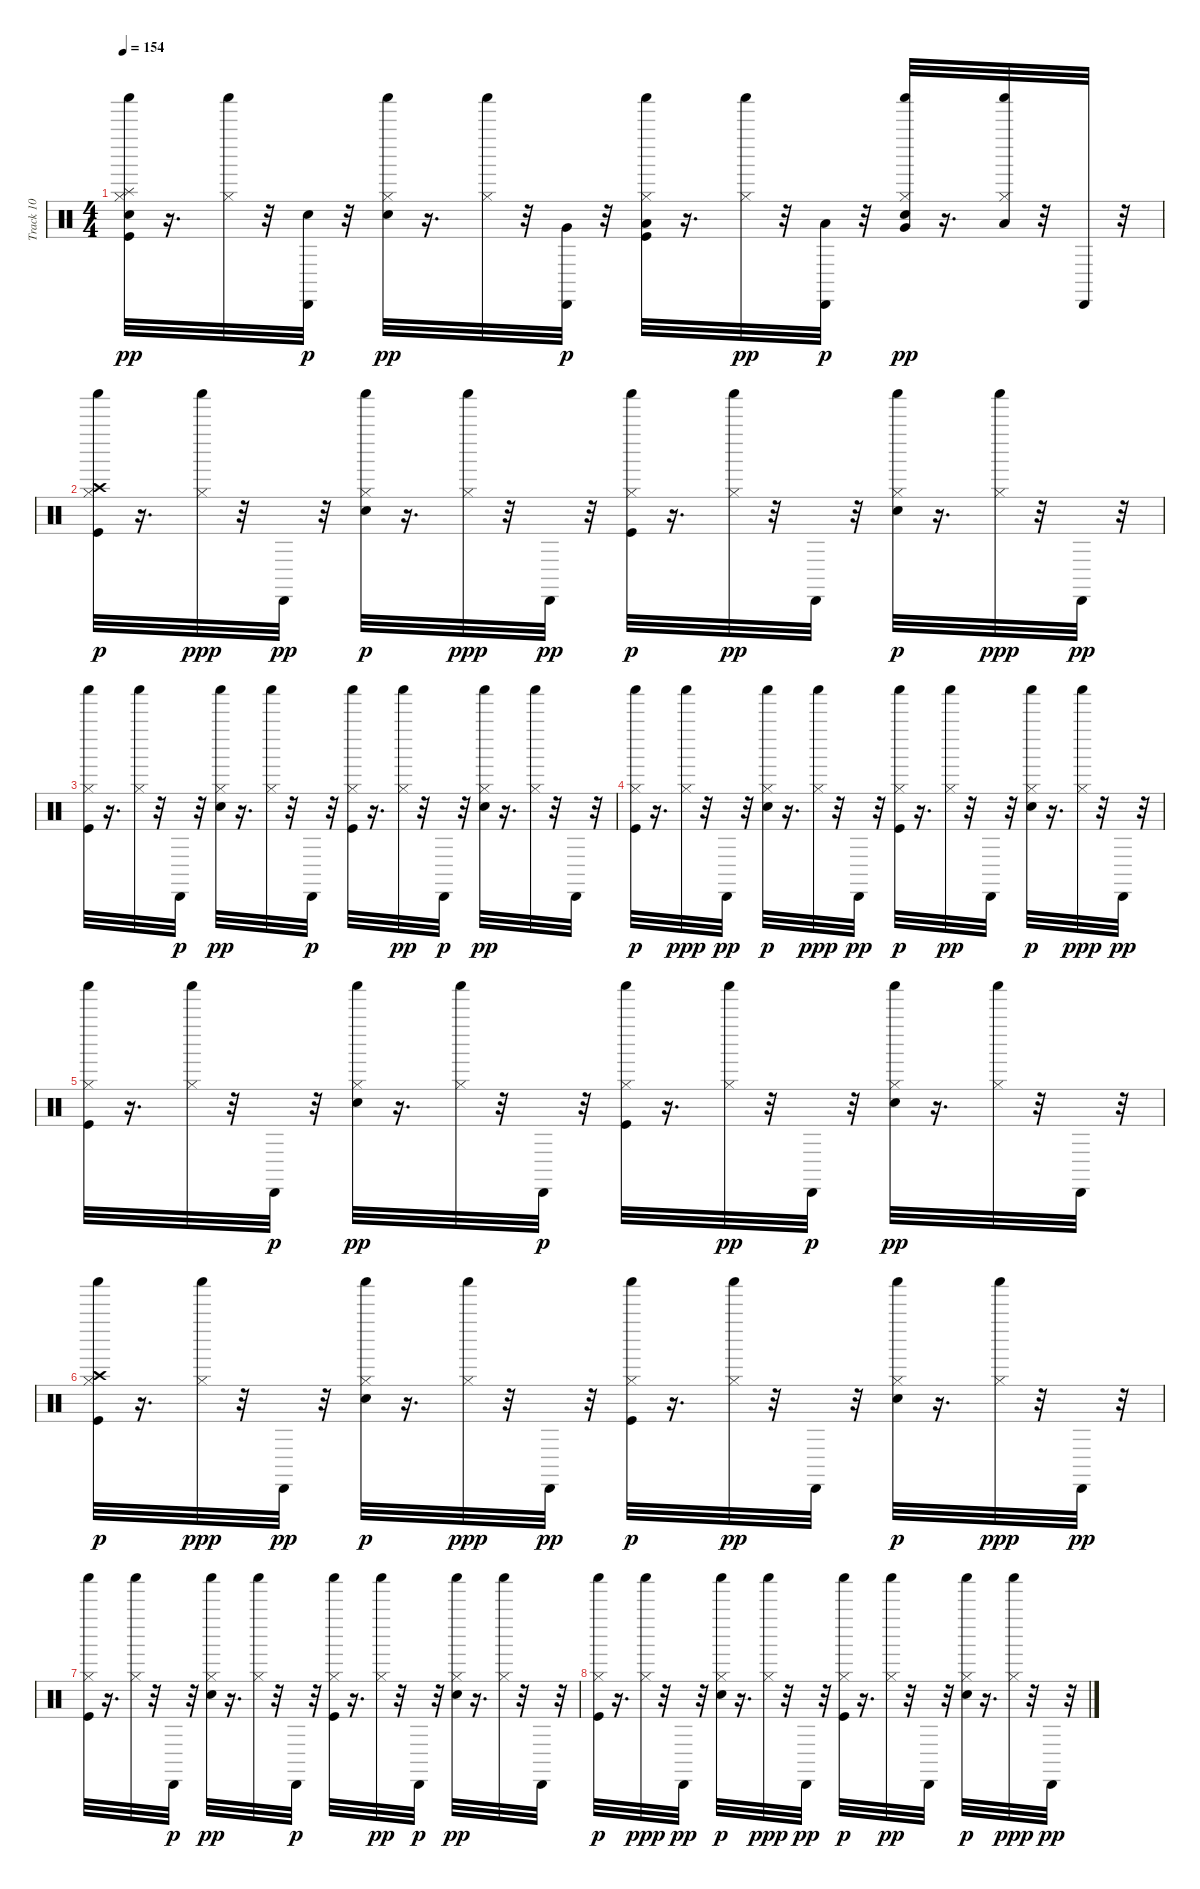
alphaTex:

\track ("Track 10" "Track 10") {instrument percussion}
\staff {score}
\articulation defaults
\ts (4 4)
\tempo 154
\clef neutral
\ks c
("Kick (hit)" "Electric Snare (hit)" "Hi-Hat (closed)" "Splash (hit)" "Shaker (hit)").32{dy pp} r.16{d} ("Hi-Hat (closed)" "Shaker (hit)").32 r.32 ("Electric Snare (hit)" "Cabasa (hit)").32{dy p} r.32 ("Electric Snare (hit)" "Hi-Hat (closed)" "Shaker (hit)").32{dy pp} r.16{d} ("Hi-Hat (closed)" "Shaker (hit)").32 r.32 ("Very Low Tom (hit)" "Cabasa (hit)").32{dy p} r.32 ("Kick (hit)" "Hi-Hat (closed)" "Low Tom (hit)" "Shaker (hit)").32 r.16{d} ("Hi-Hat (closed)" "Shaker (hit)").32{dy pp} r.32 ("Low Floor Tom (hit)" "Cabasa (hit)").32{dy p} r.32 ("Electric Snare (hit)" "Hi-Hat (closed)" "Very Low Tom (hit)" "Shaker (hit)").32{dy pp} r.16{d} ("Low Floor Tom (hit)" "Hi-Hat (closed)" "Shaker (hit)").32 r.32 "Cabasa (hit)".32 r.32 |
("Kick (hit)" "Hi-Hat (closed)" "Crash high (hit)" "Shaker (hit)").32{dy p} r.16{d} ("Hi-Hat (closed)" "Shaker (hit)").32{dy ppp} r.32 "Cabasa (hit)".32{dy pp} r.32 ("Electric Snare (hit)" "Hi-Hat (closed)" "Shaker (hit)").32{dy p} r.16{d} ("Hi-Hat (closed)" "Shaker (hit)").32{dy ppp} r.32 "Cabasa (hit)".32{dy pp} r.32 ("Kick (hit)" "Hi-Hat (closed)" "Shaker (hit)").32{dy p} r.16{d} ("Hi-Hat (closed)" "Shaker (hit)").32{dy pp} r.32 "Cabasa (hit)".32 r.32 ("Electric Snare (hit)" "Hi-Hat (closed)" "Shaker (hit)").32{dy p} r.16{d} ("Hi-Hat (closed)" "Shaker (hit)").32{dy ppp} r.32 "Cabasa (hit)".32{dy pp} r.32 |
("Kick (hit)" "Hi-Hat (closed)" "Shaker (hit)").32 r.16{d} ("Hi-Hat (closed)" "Shaker (hit)").32 r.32 "Cabasa (hit)".32{dy p} r.32 ("Electric Snare (hit)" "Hi-Hat (closed)" "Shaker (hit)").32{dy pp} r.16{d} ("Hi-Hat (closed)" "Shaker (hit)").32 r.32 "Cabasa (hit)".32{dy p} r.32 ("Kick (hit)" "Hi-Hat (closed)" "Shaker (hit)").32 r.16{d} ("Hi-Hat (closed)" "Shaker (hit)").32{dy pp} r.32 "Cabasa (hit)".32{dy p} r.32 ("Electric Snare (hit)" "Hi-Hat (closed)" "Shaker (hit)").32{dy pp} r.16{d} ("Hi-Hat (closed)" "Shaker (hit)").32 r.32 "Cabasa (hit)".32 r.32 |
("Kick (hit)" "Hi-Hat (closed)" "Shaker (hit)").32{dy p} r.16{d} ("Hi-Hat (closed)" "Shaker (hit)").32{dy ppp} r.32 "Cabasa (hit)".32{dy pp} r.32 ("Electric Snare (hit)" "Hi-Hat (closed)" "Shaker (hit)").32{dy p} r.16{d} ("Hi-Hat (closed)" "Shaker (hit)").32{dy ppp} r.32 "Cabasa (hit)".32{dy pp} r.32 ("Kick (hit)" "Hi-Hat (closed)" "Shaker (hit)").32{dy p} r.16{d} ("Hi-Hat (closed)" "Shaker (hit)").32{dy pp} r.32 "Cabasa (hit)".32 r.32 ("Electric Snare (hit)" "Hi-Hat (closed)" "Shaker (hit)").32{dy p} r.16{d} ("Hi-Hat (closed)" "Shaker (hit)").32{dy ppp} r.32 "Cabasa (hit)".32{dy pp} r.32 |
("Kick (hit)" "Hi-Hat (closed)" "Shaker (hit)").32 r.16{d} ("Hi-Hat (closed)" "Shaker (hit)").32 r.32 "Cabasa (hit)".32{dy p} r.32 ("Electric Snare (hit)" "Hi-Hat (closed)" "Shaker (hit)").32{dy pp} r.16{d} ("Hi-Hat (closed)" "Shaker (hit)").32 r.32 "Cabasa (hit)".32{dy p} r.32 ("Kick (hit)" "Hi-Hat (closed)" "Shaker (hit)").32 r.16{d} ("Hi-Hat (closed)" "Shaker (hit)").32{dy pp} r.32 "Cabasa (hit)".32{dy p} r.32 ("Electric Snare (hit)" "Hi-Hat (closed)" "Shaker (hit)").32{dy pp} r.16{d} ("Hi-Hat (closed)" "Shaker (hit)").32 r.32 "Cabasa (hit)".32 r.32 |
("Kick (hit)" "Hi-Hat (closed)" "Crash high (hit)" "Shaker (hit)").32{dy p} r.16{d} ("Hi-Hat (closed)" "Shaker (hit)").32{dy ppp} r.32 "Cabasa (hit)".32{dy pp} r.32 ("Electric Snare (hit)" "Hi-Hat (closed)" "Shaker (hit)").32{dy p} r.16{d} ("Hi-Hat (closed)" "Shaker (hit)").32{dy ppp} r.32 "Cabasa (hit)".32{dy pp} r.32 ("Kick (hit)" "Hi-Hat (closed)" "Shaker (hit)").32{dy p} r.16{d} ("Hi-Hat (closed)" "Shaker (hit)").32{dy pp} r.32 "Cabasa (hit)".32 r.32 ("Electric Snare (hit)" "Hi-Hat (closed)" "Shaker (hit)").32{dy p} r.16{d} ("Hi-Hat (closed)" "Shaker (hit)").32{dy ppp} r.32 "Cabasa (hit)".32{dy pp} r.32 |
("Kick (hit)" "Hi-Hat (closed)" "Shaker (hit)").32 r.16{d} ("Hi-Hat (closed)" "Shaker (hit)").32 r.32 "Cabasa (hit)".32{dy p} r.32 ("Electric Snare (hit)" "Hi-Hat (closed)" "Shaker (hit)").32{dy pp} r.16{d} ("Hi-Hat (closed)" "Shaker (hit)").32 r.32 "Cabasa (hit)".32{dy p} r.32 ("Kick (hit)" "Hi-Hat (closed)" "Shaker (hit)").32 r.16{d} ("Hi-Hat (closed)" "Shaker (hit)").32{dy pp} r.32 "Cabasa (hit)".32{dy p} r.32 ("Electric Snare (hit)" "Hi-Hat (closed)" "Shaker (hit)").32{dy pp} r.16{d} ("Hi-Hat (closed)" "Shaker (hit)").32 r.32 "Cabasa (hit)".32 r.32 |
("Kick (hit)" "Hi-Hat (closed)" "Shaker (hit)").32{dy p} r.16{d} ("Hi-Hat (closed)" "Shaker (hit)").32{dy ppp} r.32 "Cabasa (hit)".32{dy pp} r.32 ("Electric Snare (hit)" "Hi-Hat (closed)" "Shaker (hit)").32{dy p} r.16{d} ("Hi-Hat (closed)" "Shaker (hit)").32{dy ppp} r.32 "Cabasa (hit)".32{dy pp} r.32 ("Kick (hit)" "Hi-Hat (closed)" "Shaker (hit)").32{dy p} r.16{d} ("Hi-Hat (closed)" "Shaker (hit)").32{dy pp} r.32 "Cabasa (hit)".32 r.32 ("Electric Snare (hit)" "Hi-Hat (closed)" "Shaker (hit)").32{dy p} r.16{d} ("Hi-Hat (closed)" "Shaker (hit)").32{dy ppp} r.32 "Cabasa (hit)".32{dy pp} r.32
